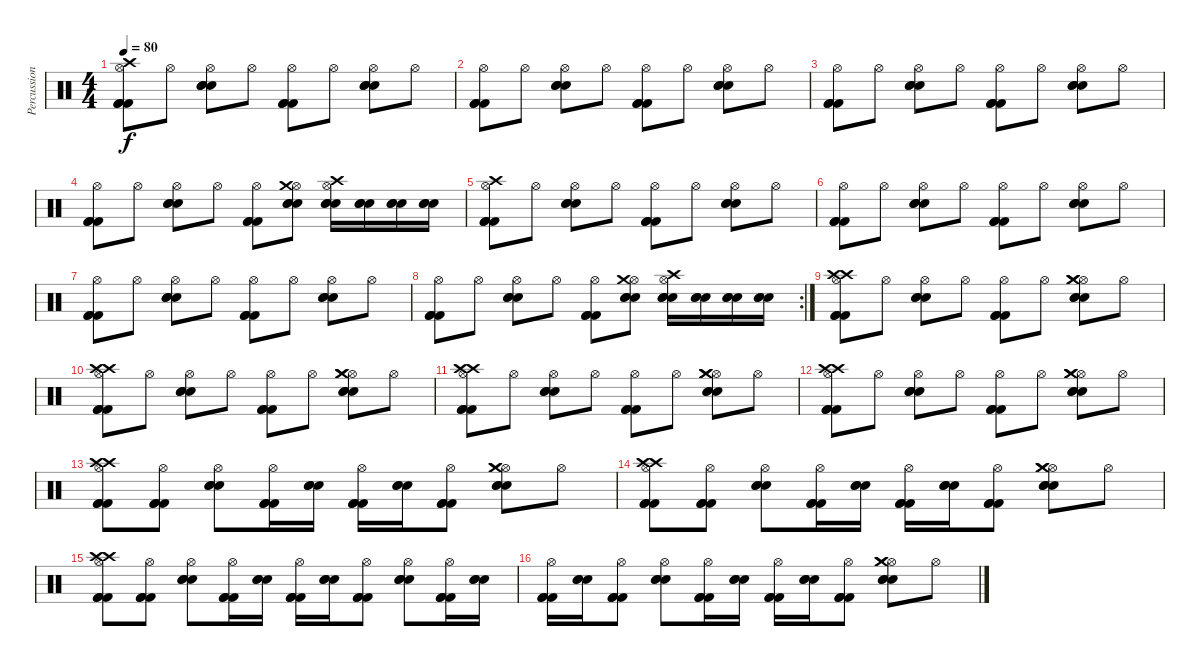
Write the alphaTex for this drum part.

\track ("Percussion" "Percussion") {instrument percussion}
\staff {score}
\articulation defaults
\ts (4 4)
\tempo 80
\clef neutral
\ks c
("Hi-Hat (open)" "Kick (hit) 2" "Kick (hit) 2" "Kick (hit) 2" "Crash high (hit)").8{dy f} "Hi-Hat (open)".8 ("Hi-Hat (open)" "Electric Snare (hit)" "Electric Snare (hit)" "Electric Snare (hit)").8 "Hi-Hat (open)".8 ("Hi-Hat (open)" "Kick (hit) 2" "Kick (hit) 2" "Kick (hit) 2").8 "Hi-Hat (open)".8 ("Hi-Hat (open)" "Electric Snare (hit)" "Electric Snare (hit)" "Electric Snare (hit)").8 "Hi-Hat (open)".8 |
("Hi-Hat (open)" "Kick (hit) 2" "Kick (hit) 2" "Kick (hit) 2").8 "Hi-Hat (open)".8 ("Hi-Hat (open)" "Electric Snare (hit)" "Electric Snare (hit)" "Electric Snare (hit)").8 "Hi-Hat (open)".8 ("Hi-Hat (open)" "Kick (hit) 2" "Kick (hit) 2" "Kick (hit) 2").8 "Hi-Hat (open)".8 ("Hi-Hat (open)" "Electric Snare (hit)" "Electric Snare (hit)" "Electric Snare (hit)").8 "Hi-Hat (open)".8 |
("Hi-Hat (open)" "Kick (hit) 2" "Kick (hit) 2" "Kick (hit) 2").8 "Hi-Hat (open)".8 ("Hi-Hat (open)" "Electric Snare (hit)" "Electric Snare (hit)" "Electric Snare (hit)").8 "Hi-Hat (open)".8 ("Hi-Hat (open)" "Kick (hit) 2" "Kick (hit) 2" "Kick (hit) 2").8 "Hi-Hat (open)".8 ("Hi-Hat (open)" "Electric Snare (hit)" "Electric Snare (hit)" "Electric Snare (hit)").8 "Hi-Hat (open)".8 |
("Hi-Hat (open)" "Kick (hit) 2" "Kick (hit) 2" "Kick (hit) 2").8 "Hi-Hat (open)".8 ("Hi-Hat (open)" "Electric Snare (hit)" "Electric Snare (hit)" "Electric Snare (hit)").8 "Hi-Hat (open)".8 ("Hi-Hat (open)" "Kick (hit) 2" "Kick (hit) 2" "Kick (hit) 2").8 ("Hi-Hat (open)" "Electric Snare (hit)" "Electric Snare (hit)" "Electric Snare (hit)" "Crash medium (hit)").8 ("Hi-Hat (open)" "Electric Snare (hit)" "Electric Snare (hit)" "Electric Snare (hit)" "Crash high (hit)").16 ("Electric Snare (hit)" "Electric Snare (hit)" "Electric Snare (hit)").16 ("Electric Snare (hit)" "Electric Snare (hit)" "Electric Snare (hit)").16 ("Electric Snare (hit)" "Electric Snare (hit)" "Electric Snare (hit)").16 |
("Hi-Hat (open)" "Kick (hit) 2" "Kick (hit) 2" "Kick (hit) 2" "Crash high (hit)").8 "Hi-Hat (open)".8 ("Hi-Hat (open)" "Electric Snare (hit)" "Electric Snare (hit)" "Electric Snare (hit)").8 "Hi-Hat (open)".8 ("Hi-Hat (open)" "Kick (hit) 2" "Kick (hit) 2" "Kick (hit) 2").8 "Hi-Hat (open)".8 ("Hi-Hat (open)" "Electric Snare (hit)" "Electric Snare (hit)" "Electric Snare (hit)").8 "Hi-Hat (open)".8 |
("Hi-Hat (open)" "Kick (hit) 2" "Kick (hit) 2" "Kick (hit) 2").8 "Hi-Hat (open)".8 ("Hi-Hat (open)" "Electric Snare (hit)" "Electric Snare (hit)" "Electric Snare (hit)").8 "Hi-Hat (open)".8 ("Hi-Hat (open)" "Kick (hit) 2" "Kick (hit) 2" "Kick (hit) 2").8 "Hi-Hat (open)".8 ("Hi-Hat (open)" "Electric Snare (hit)" "Electric Snare (hit)" "Electric Snare (hit)").8 "Hi-Hat (open)".8 |
("Hi-Hat (open)" "Kick (hit) 2" "Kick (hit) 2" "Kick (hit) 2").8 "Hi-Hat (open)".8 ("Hi-Hat (open)" "Electric Snare (hit)" "Electric Snare (hit)" "Electric Snare (hit)").8 "Hi-Hat (open)".8 ("Hi-Hat (open)" "Kick (hit) 2" "Kick (hit) 2" "Kick (hit) 2").8 "Hi-Hat (open)".8 ("Hi-Hat (open)" "Electric Snare (hit)" "Electric Snare (hit)" "Electric Snare (hit)").8 "Hi-Hat (open)".8 |
\rc 2
("Hi-Hat (open)" "Kick (hit) 2" "Kick (hit) 2" "Kick (hit) 2").8 "Hi-Hat (open)".8 ("Hi-Hat (open)" "Electric Snare (hit)" "Electric Snare (hit)" "Electric Snare (hit)").8 "Hi-Hat (open)".8 ("Hi-Hat (open)" "Kick (hit) 2" "Kick (hit) 2" "Kick (hit) 2").8 ("Hi-Hat (open)" "Electric Snare (hit)" "Electric Snare (hit)" "Electric Snare (hit)" "Crash medium (hit)").8 ("Hi-Hat (open)" "Electric Snare (hit)" "Electric Snare (hit)" "Electric Snare (hit)" "Crash high (hit)").16 ("Electric Snare (hit)" "Electric Snare (hit)" "Electric Snare (hit)").16 ("Electric Snare (hit)" "Electric Snare (hit)" "Electric Snare (hit)").16 ("Electric Snare (hit)" "Electric Snare (hit)" "Electric Snare (hit)").16 |
("Hi-Hat (open)" "Kick (hit) 2" "Kick (hit) 2" "Kick (hit) 2" "Crash high (hit)" "Crash high (hit)").8 "Hi-Hat (open)".8 ("Hi-Hat (open)" "Electric Snare (hit)" "Electric Snare (hit)" "Electric Snare (hit)").8 "Hi-Hat (open)".8 ("Hi-Hat (open)" "Kick (hit) 2" "Kick (hit) 2" "Kick (hit) 2").8 "Hi-Hat (open)".8 ("Hi-Hat (open)" "Electric Snare (hit)" "Electric Snare (hit)" "Electric Snare (hit)" "Crash medium (hit)" "Crash medium (hit)").8 "Hi-Hat (open)".8 |
("Hi-Hat (open)" "Kick (hit) 2" "Kick (hit) 2" "Kick (hit) 2" "Crash high (hit)" "Crash high (hit)").8 "Hi-Hat (open)".8 ("Hi-Hat (open)" "Electric Snare (hit)" "Electric Snare (hit)" "Electric Snare (hit)").8 "Hi-Hat (open)".8 ("Hi-Hat (open)" "Kick (hit) 2" "Kick (hit) 2" "Kick (hit) 2").8 "Hi-Hat (open)".8 ("Hi-Hat (open)" "Electric Snare (hit)" "Electric Snare (hit)" "Electric Snare (hit)" "Crash medium (hit)" "Crash medium (hit)").8 "Hi-Hat (open)".8 |
("Hi-Hat (open)" "Kick (hit) 2" "Kick (hit) 2" "Kick (hit) 2" "Crash high (hit)" "Crash high (hit)").8 "Hi-Hat (open)".8 ("Hi-Hat (open)" "Electric Snare (hit)" "Electric Snare (hit)" "Electric Snare (hit)").8 "Hi-Hat (open)".8 ("Hi-Hat (open)" "Kick (hit) 2" "Kick (hit) 2" "Kick (hit) 2").8 "Hi-Hat (open)".8 ("Hi-Hat (open)" "Electric Snare (hit)" "Electric Snare (hit)" "Electric Snare (hit)" "Crash medium (hit)" "Crash medium (hit)").8 "Hi-Hat (open)".8 |
("Hi-Hat (open)" "Kick (hit) 2" "Kick (hit) 2" "Kick (hit) 2" "Crash high (hit)" "Crash high (hit)").8 "Hi-Hat (open)".8 ("Hi-Hat (open)" "Electric Snare (hit)" "Electric Snare (hit)" "Electric Snare (hit)").8 "Hi-Hat (open)".8 ("Hi-Hat (open)" "Kick (hit) 2" "Kick (hit) 2" "Kick (hit) 2").8 "Hi-Hat (open)".8 ("Hi-Hat (open)" "Electric Snare (hit)" "Electric Snare (hit)" "Electric Snare (hit)" "Crash medium (hit)" "Crash medium (hit)").8 "Hi-Hat (open)".8 |
("Hi-Hat (open)" "Kick (hit) 2" "Kick (hit) 2" "Kick (hit) 2" "Crash high (hit)" "Crash high (hit)").8 ("Hi-Hat (open)" "Kick (hit) 2" "Kick (hit) 2" "Kick (hit) 2").8 ("Hi-Hat (open)" "Electric Snare (hit)" "Electric Snare (hit)" "Electric Snare (hit)").8 ("Hi-Hat (open)" "Kick (hit) 2" "Kick (hit) 2" "Kick (hit) 2").16 ("Electric Snare (hit)" "Electric Snare (hit)" "Electric Snare (hit)").16 ("Hi-Hat (open)" "Kick (hit) 2" "Kick (hit) 2" "Kick (hit) 2").16 ("Electric Snare (hit)" "Electric Snare (hit)" "Electric Snare (hit)").16 ("Hi-Hat (open)" "Kick (hit) 2" "Kick (hit) 2" "Kick (hit) 2").8 ("Hi-Hat (open)" "Electric Snare (hit)" "Electric Snare (hit)" "Electric Snare (hit)" "Crash medium (hit)" "Crash medium (hit)").8 "Hi-Hat (open)".8 |
("Hi-Hat (open)" "Kick (hit) 2" "Kick (hit) 2" "Kick (hit) 2" "Crash high (hit)" "Crash high (hit)").8 ("Hi-Hat (open)" "Kick (hit) 2" "Kick (hit) 2" "Kick (hit) 2").8 ("Hi-Hat (open)" "Electric Snare (hit)" "Electric Snare (hit)" "Electric Snare (hit)").8 ("Hi-Hat (open)" "Kick (hit) 2" "Kick (hit) 2" "Kick (hit) 2").16 ("Electric Snare (hit)" "Electric Snare (hit)" "Electric Snare (hit)").16 ("Hi-Hat (open)" "Kick (hit) 2" "Kick (hit) 2" "Kick (hit) 2").16 ("Electric Snare (hit)" "Electric Snare (hit)" "Electric Snare (hit)").16 ("Hi-Hat (open)" "Kick (hit) 2" "Kick (hit) 2" "Kick (hit) 2").8 ("Hi-Hat (open)" "Electric Snare (hit)" "Electric Snare (hit)" "Electric Snare (hit)" "Crash medium (hit)" "Crash medium (hit)").8 "Hi-Hat (open)".8 |
("Hi-Hat (open)" "Kick (hit) 2" "Kick (hit) 2" "Kick (hit) 2" "Crash high (hit)" "Crash high (hit)").8 ("Hi-Hat (open)" "Kick (hit) 2" "Kick (hit) 2" "Kick (hit) 2").8 ("Hi-Hat (open)" "Electric Snare (hit)" "Electric Snare (hit)" "Electric Snare (hit)").8 ("Hi-Hat (open)" "Kick (hit) 2" "Kick (hit) 2" "Kick (hit) 2").16 ("Electric Snare (hit)" "Electric Snare (hit)" "Electric Snare (hit)").16 ("Hi-Hat (open)" "Kick (hit) 2" "Kick (hit) 2" "Kick (hit) 2").16 ("Electric Snare (hit)" "Electric Snare (hit)" "Electric Snare (hit)").16 ("Hi-Hat (open)" "Kick (hit) 2" "Kick (hit) 2" "Kick (hit) 2").8 ("Hi-Hat (open)" "Electric Snare (hit)" "Electric Snare (hit)" "Electric Snare (hit)").8 ("Hi-Hat (open)" "Kick (hit) 2" "Kick (hit) 2" "Kick (hit) 2").16 ("Electric Snare (hit)" "Electric Snare (hit)" "Electric Snare (hit)").16 |
("Hi-Hat (open)" "Kick (hit) 2" "Kick (hit) 2" "Kick (hit) 2").16 ("Electric Snare (hit)" "Electric Snare (hit)" "Electric Snare (hit)").16 ("Hi-Hat (open)" "Kick (hit) 2" "Kick (hit) 2" "Kick (hit) 2").8 ("Hi-Hat (open)" "Electric Snare (hit)" "Electric Snare (hit)" "Electric Snare (hit)").8 ("Hi-Hat (open)" "Kick (hit) 2" "Kick (hit) 2" "Kick (hit) 2").16 ("Electric Snare (hit)" "Electric Snare (hit)" "Electric Snare (hit)").16 ("Hi-Hat (open)" "Kick (hit) 2" "Kick (hit) 2" "Kick (hit) 2").16 ("Electric Snare (hit)" "Electric Snare (hit)" "Electric Snare (hit)").16 ("Hi-Hat (open)" "Kick (hit) 2" "Kick (hit) 2" "Kick (hit) 2").8 ("Hi-Hat (open)" "Electric Snare (hit)" "Electric Snare (hit)" "Electric Snare (hit)" "Crash medium (hit)" "Crash medium (hit)").8 "Hi-Hat (open)".8
